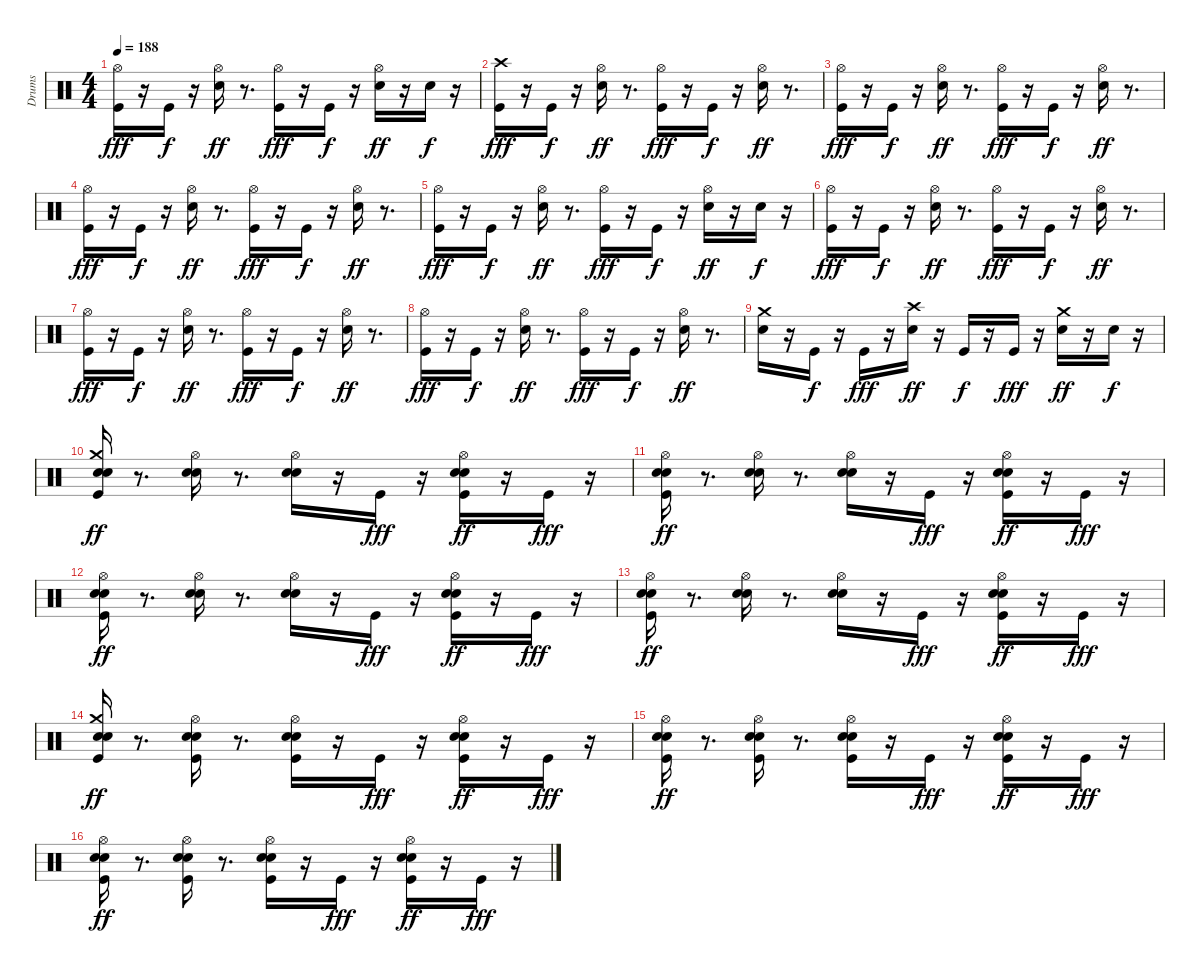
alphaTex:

\track ("Drums" "Drums") {instrument percussion}
\staff {score}
\articulation defaults
\ts (4 4)
\tempo 188
\clef neutral
\ks c
("Hi-Hat (open)" "Kick (hit)").16{dy fff} r.16 "Kick (hit)".16{dy f} r.16 ("Hi-Hat (open)" "Electric Snare (hit)").16{dy ff} r.8{d} ("Hi-Hat (open)" "Kick (hit)").16{dy fff} r.16 "Kick (hit)".16{dy f} r.16 ("Electric Snare (hit)" "Hi-Hat (open)").16{dy ff} r.16 "Electric Snare (hit)".16{dy f} r.16 |
("Crash high (hit)" "Kick (hit)").16{dy fff} r.16 "Kick (hit)".16{dy f} r.16 ("Hi-Hat (open)" "Electric Snare (hit)").16{dy ff} r.8{d} ("Hi-Hat (open)" "Kick (hit)").16{dy fff} r.16 "Kick (hit)".16{dy f} r.16 ("Hi-Hat (open)" "Electric Snare (hit)").16{dy ff} r.8{d} |
("Hi-Hat (open)" "Kick (hit)").16{dy fff} r.16 "Kick (hit)".16{dy f} r.16 ("Hi-Hat (open)" "Electric Snare (hit)").16{dy ff} r.8{d} ("Hi-Hat (open)" "Kick (hit)").16{dy fff} r.16 "Kick (hit)".16{dy f} r.16 ("Hi-Hat (open)" "Electric Snare (hit)").16{dy ff} r.8{d} |
("Hi-Hat (open)" "Kick (hit)").16{dy fff} r.16 "Kick (hit)".16{dy f} r.16 ("Hi-Hat (open)" "Electric Snare (hit)").16{dy ff} r.8{d} ("Hi-Hat (open)" "Kick (hit)").16{dy fff} r.16 "Kick (hit)".16{dy f} r.16 ("Hi-Hat (open)" "Electric Snare (hit)").16{dy ff} r.8{d} |
("Hi-Hat (open)" "Kick (hit)").16{dy fff} r.16 "Kick (hit)".16{dy f} r.16 ("Hi-Hat (open)" "Electric Snare (hit)").16{dy ff} r.8{d} ("Hi-Hat (open)" "Kick (hit)").16{dy fff} r.16 "Kick (hit)".16{dy f} r.16 ("Electric Snare (hit)" "Hi-Hat (open)").16{dy ff} r.16 "Electric Snare (hit)".16{dy f} r.16 |
("Hi-Hat (open)" "Kick (hit)").16{dy fff} r.16 "Kick (hit)".16{dy f} r.16 ("Hi-Hat (open)" "Electric Snare (hit)").16{dy ff} r.8{d} ("Hi-Hat (open)" "Kick (hit)").16{dy fff} r.16 "Kick (hit)".16{dy f} r.16 ("Hi-Hat (open)" "Electric Snare (hit)").16{dy ff} r.8{d} |
("Hi-Hat (open)" "Kick (hit)").16{dy fff} r.16 "Kick (hit)".16{dy f} r.16 ("Hi-Hat (open)" "Electric Snare (hit)").16{dy ff} r.8{d} ("Hi-Hat (open)" "Kick (hit)").16{dy fff} r.16 "Kick (hit)".16{dy f} r.16 ("Hi-Hat (open)" "Electric Snare (hit)").16{dy ff} r.8{d} |
("Hi-Hat (open)" "Kick (hit)").16{dy fff} r.16 "Kick (hit)".16{dy f} r.16 ("Hi-Hat (open)" "Electric Snare (hit)").16{dy ff} r.8{d} ("Hi-Hat (open)" "Kick (hit)").16{dy fff} r.16 "Kick (hit)".16{dy f} r.16 ("Hi-Hat (open)" "Electric Snare (hit)").16{dy ff} r.8{d} |
("Electric Snare (hit)" "Crash medium (hit)").16 r.16 "Kick (hit)".16{dy f} r.16 "Kick (hit)".16{dy fff} r.16 ("Crash high (hit)" "Electric Snare (hit)").16{dy ff} r.16 "Kick (hit)".16{dy f} r.16 "Kick (hit)".16{dy fff} r.16 ("Crash medium (hit)" "Electric Snare (hit)").16{dy ff} r.16 "Electric Snare (hit)".16{dy f} r.16 |
("Crash medium (hit)" "Snare (hit) 2" "Kick (hit)" "Snare (hit) 2").16{dy ff} r.8{d} ("Hi-Hat (open)" "Snare (hit) 2" "Snare (hit) 2").16 r.8{d} ("Hi-Hat (open)" "Snare (hit) 2" "Snare (hit) 2").16 r.16 "Kick (hit)".16{dy fff} r.16 ("Hi-Hat (open)" "Snare (hit) 2" "Kick (hit)" "Snare (hit) 2").16{dy ff} r.16 "Kick (hit)".16{dy fff} r.16 |
("Hi-Hat (open)" "Snare (hit) 2" "Kick (hit)" "Snare (hit) 2").16{dy ff} r.8{d} ("Hi-Hat (open)" "Snare (hit) 2" "Snare (hit) 2").16 r.8{d} ("Hi-Hat (open)" "Snare (hit) 2" "Snare (hit) 2").16 r.16 "Kick (hit)".16{dy fff} r.16 ("Hi-Hat (open)" "Snare (hit) 2" "Kick (hit)" "Snare (hit) 2").16{dy ff} r.16 "Kick (hit)".16{dy fff} r.16 |
("Hi-Hat (open)" "Snare (hit) 2" "Kick (hit)" "Snare (hit) 2").16{dy ff} r.8{d} ("Hi-Hat (open)" "Snare (hit) 2" "Snare (hit) 2").16 r.8{d} ("Hi-Hat (open)" "Snare (hit) 2" "Snare (hit) 2").16 r.16 "Kick (hit)".16{dy fff} r.16 ("Hi-Hat (open)" "Snare (hit) 2" "Kick (hit)" "Snare (hit) 2").16{dy ff} r.16 "Kick (hit)".16{dy fff} r.16 |
("Hi-Hat (open)" "Snare (hit) 2" "Kick (hit)" "Snare (hit) 2").16{dy ff} r.8{d} ("Hi-Hat (open)" "Snare (hit) 2" "Snare (hit) 2").16 r.8{d} ("Hi-Hat (open)" "Snare (hit) 2" "Snare (hit) 2").16 r.16 "Kick (hit)".16{dy fff} r.16 ("Hi-Hat (open)" "Snare (hit) 2" "Kick (hit)" "Snare (hit) 2").16{dy ff} r.16 "Kick (hit)".16{dy fff} r.16 |
("Crash medium (hit)" "Snare (hit) 2" "Kick (hit)" "Snare (hit) 2").16{dy ff} r.8{d} ("Hi-Hat (open)" "Snare (hit) 2" "Kick (hit)" "Snare (hit) 2").16 r.8{d} ("Hi-Hat (open)" "Snare (hit) 2" "Kick (hit)" "Snare (hit) 2").16 r.16 "Kick (hit)".16{dy fff} r.16 ("Hi-Hat (open)" "Snare (hit) 2" "Kick (hit)" "Snare (hit) 2").16{dy ff} r.16 "Kick (hit)".16{dy fff} r.16 |
("Hi-Hat (open)" "Snare (hit) 2" "Kick (hit)" "Snare (hit) 2").16{dy ff} r.8{d} ("Hi-Hat (open)" "Snare (hit) 2" "Kick (hit)" "Snare (hit) 2").16 r.8{d} ("Hi-Hat (open)" "Snare (hit) 2" "Kick (hit)" "Snare (hit) 2").16 r.16 "Kick (hit)".16{dy fff} r.16 ("Hi-Hat (open)" "Snare (hit) 2" "Kick (hit)" "Snare (hit) 2").16{dy ff} r.16 "Kick (hit)".16{dy fff} r.16 |
("Hi-Hat (open)" "Snare (hit) 2" "Kick (hit)" "Snare (hit) 2").16{dy ff} r.8{d} ("Hi-Hat (open)" "Snare (hit) 2" "Kick (hit)" "Snare (hit) 2").16 r.8{d} ("Hi-Hat (open)" "Snare (hit) 2" "Kick (hit)" "Snare (hit) 2").16 r.16 "Kick (hit)".16{dy fff} r.16 ("Hi-Hat (open)" "Snare (hit) 2" "Kick (hit)" "Snare (hit) 2").16{dy ff} r.16 "Kick (hit)".16{dy fff} r.16
